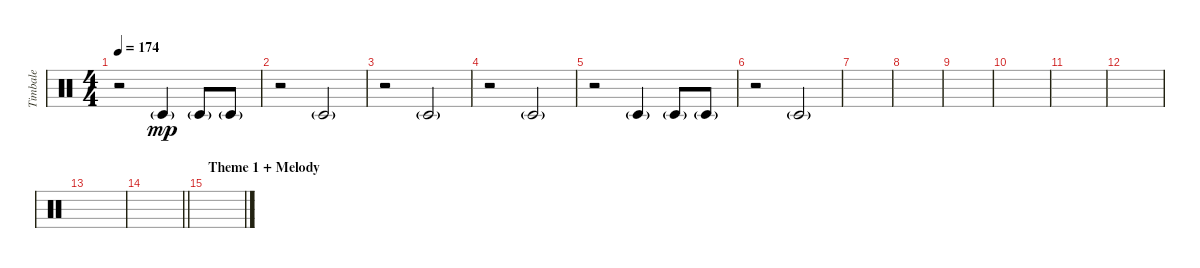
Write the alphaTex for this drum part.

\track ("Timbale" "Timbale") {instrument percussion}
\staff {score}
\articulation defaults
\ts (4 4)
\tempo 174
\clef neutral
\ks c
r.2{dy mp} "Timbale low (hit)"{g}.4 "Timbale low (hit)"{g}.8 "Timbale low (hit)"{g}.8 |
r.2 "Timbale low (hit)"{g}.2 |
r.2 "Timbale low (hit)"{g}.2 |
r.2 "Timbale low (hit)"{g}.2 |
r.2 "Timbale low (hit)"{g}.4 "Timbale low (hit)"{g}.8 "Timbale low (hit)"{g}.8 |
r.2 "Timbale low (hit)"{g}.2 |
|
|
|
|
|
|
|
\barLineRight lightlight
|
\section ("" "Theme 1 + Melody")
